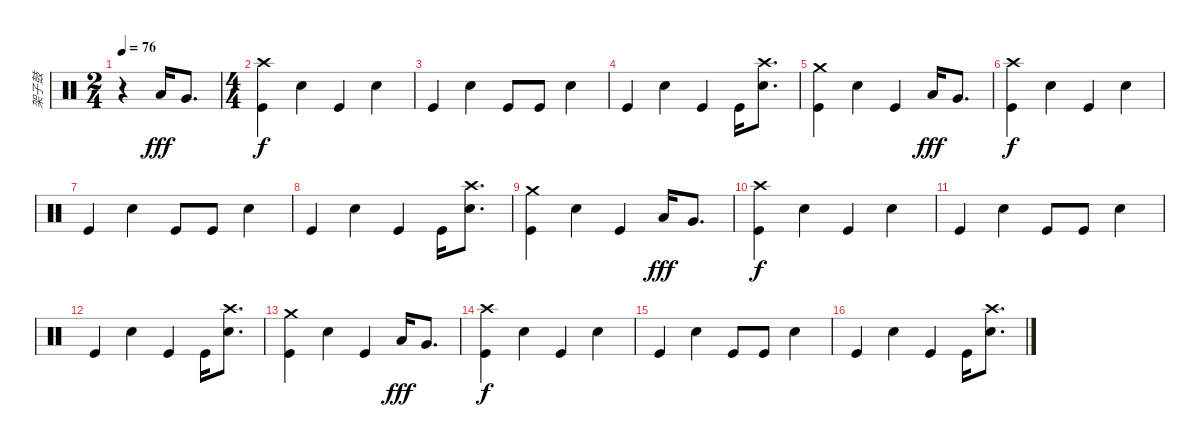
\track ("架子鼓" "架子鼓") {instrument percussion}
\staff {score}
\articulation defaults
\ts (2 4)
\tempo 76
\clef neutral
\ks c
r.4{dy fff} "Low Floor Tom (hit)".16 "Very Low Tom (hit)".8{d} |
\ts (4 4)
("Kick (hit)" "Crash high (hit)").4{dy f} "Electric Snare (hit)".4 "Kick (hit)".4 "Electric Snare (hit)".4 |
"Kick (hit)".4 "Electric Snare (hit)".4 "Kick (hit)".8 "Kick (hit)".8 "Electric Snare (hit)".4 |
"Kick (hit)".4 "Electric Snare (hit)".4 "Kick (hit)".4 "Kick (hit)".16 ("Electric Snare (hit)" "Crash high (hit)").8{d} |
("Kick (hit)" "Crash medium (hit)").4 "Electric Snare (hit)".4 "Kick (hit)".4 "Low Floor Tom (hit)".16{dy fff} "Very Low Tom (hit)".8{d} |
("Kick (hit)" "Crash high (hit)").4{dy f} "Electric Snare (hit)".4 "Kick (hit)".4 "Electric Snare (hit)".4 |
"Kick (hit)".4 "Electric Snare (hit)".4 "Kick (hit)".8 "Kick (hit)".8 "Electric Snare (hit)".4 |
"Kick (hit)".4 "Electric Snare (hit)".4 "Kick (hit)".4 "Kick (hit)".16 ("Electric Snare (hit)" "Crash high (hit)").8{d} |
("Kick (hit)" "Crash medium (hit)").4 "Electric Snare (hit)".4 "Kick (hit)".4 "Low Floor Tom (hit)".16{dy fff} "Very Low Tom (hit)".8{d} |
("Kick (hit)" "Crash high (hit)").4{dy f} "Electric Snare (hit)".4 "Kick (hit)".4 "Electric Snare (hit)".4 |
"Kick (hit)".4 "Electric Snare (hit)".4 "Kick (hit)".8 "Kick (hit)".8 "Electric Snare (hit)".4 |
"Kick (hit)".4 "Electric Snare (hit)".4 "Kick (hit)".4 "Kick (hit)".16 ("Electric Snare (hit)" "Crash high (hit)").8{d} |
("Kick (hit)" "Crash medium (hit)").4 "Electric Snare (hit)".4 "Kick (hit)".4 "Low Floor Tom (hit)".16{dy fff} "Very Low Tom (hit)".8{d} |
("Kick (hit)" "Crash high (hit)").4{dy f} "Electric Snare (hit)".4 "Kick (hit)".4 "Electric Snare (hit)".4 |
"Kick (hit)".4 "Electric Snare (hit)".4 "Kick (hit)".8 "Kick (hit)".8 "Electric Snare (hit)".4 |
"Kick (hit)".4 "Electric Snare (hit)".4 "Kick (hit)".4 "Kick (hit)".16 ("Electric Snare (hit)" "Crash high (hit)").8{d}
